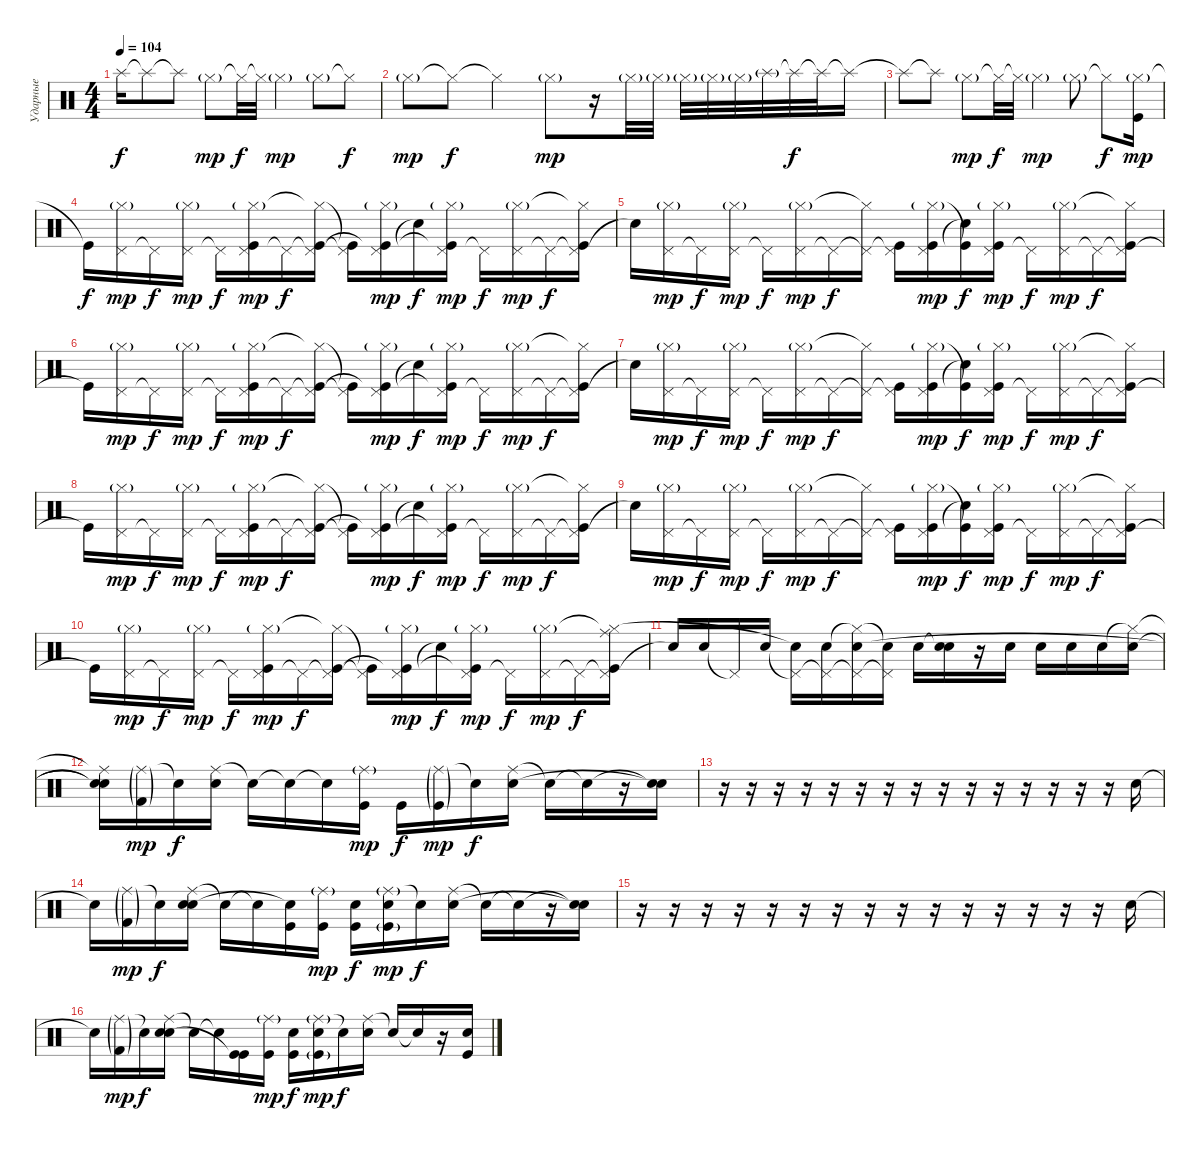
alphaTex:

\track ("Ударные" "Ударные") {instrument percussion}
\staff {score}
\articulation defaults
\ts (4 4)
\tempo 104
\clef neutral
\ks c "Splash (hit)"{t}.16{dy f} "Splash (hit)"{t}.8 "Splash (hit)"{t}.8 "Hi-Hat (closed)"{g}.8{dy mp} "Hi-Hat (closed)"{t}.32{dy f} "Hi-Hat (closed)"{t}.32 "Hi-Hat (closed)"{g}.4{dy mp} "Hi-Hat (closed)"{g}.8 "Hi-Hat (closed)"{t}.8{dy f}
|
"Hi-Hat (closed)"{g}.8{dy mp} "Hi-Hat (closed)"{t}.8{dy f} "Hi-Hat (closed)"{t}.4 "Hi-Hat (closed)"{g}.8{dy mp} r.16 "Hi-Hat (closed)"{g}.32 "Hi-Hat (closed)"{g}.32 "Hi-Hat (closed)"{g}.32 "Hi-Hat (closed)"{g}.32 "Hi-Hat (closed)"{g}.32 "Splash (hit)"{g}.32 "Splash (hit)"{t}.32{dy f} "Splash (hit)"{t}.32 "Splash (hit)"{t}.16 |
"Splash (hit)"{t}.8 "Splash (hit)"{t}.8 "Hi-Hat (closed)"{g}.8{dy mp} "Hi-Hat (closed)"{t}.32{dy f} "Hi-Hat (closed)"{t}.32 "Hi-Hat (closed)"{g}.4{dy mp} "Hi-Hat (closed)"{g}.8 "Hi-Hat (closed)"{t}.8{dy f} ("Hi-Hat (closed)"{g} "Kick (hit)").16{dy mp} |
"Kick (hit)"{t}.16{dy f} ("Pedal Hi-Hat (hit)" "Hi-Hat (closed)"{g}).16{dy mp} "Pedal Hi-Hat (hit)"{t}.16{dy f} ("Pedal Hi-Hat (hit)" "Hi-Hat (closed)"{g}).16{dy mp} "Pedal Hi-Hat (hit)"{t}.16{dy f} ("Pedal Hi-Hat (hit)" "Hi-Hat (closed)"{g} "Kick (hit)").16{dy mp} "Pedal Hi-Hat (hit)"{t}.16{dy f} ("Pedal Hi-Hat (hit)"{t} "Hi-Hat (closed)"{t} "Kick (hit)").16 ("Pedal Hi-Hat (hit)"{t} "Kick (hit)"{t}).16 ("Pedal Hi-Hat (hit)" "Hi-Hat (closed)"{g} "Kick (hit)"{t}).16{dy mp} "Snare (hit)"{t}.16{dy f} ("Pedal Hi-Hat (hit)" "Hi-Hat (closed)"{g} "Kick (hit)"{t}).16{dy mp} "Pedal Hi-Hat (hit)"{t}.16{dy f} ("Pedal Hi-Hat (hit)" "Hi-Hat (closed)"{g}).16{dy mp} "Pedal Hi-Hat (hit)"{t}.16{dy f} ("Pedal Hi-Hat (hit)"{t} "Hi-Hat (closed)"{t} "Kick (hit)").16 |
"Snare (hit)"{t}.16 ("Pedal Hi-Hat (hit)" "Hi-Hat (closed)"{g}).16{dy mp} "Pedal Hi-Hat (hit)"{t}.16{dy f} ("Pedal Hi-Hat (hit)" "Hi-Hat (closed)"{g}).16{dy mp} "Pedal Hi-Hat (hit)"{t}.16{dy f} ("Pedal Hi-Hat (hit)" "Hi-Hat (closed)"{g}).16{dy mp} "Pedal Hi-Hat (hit)"{t}.16{dy f} ("Pedal Hi-Hat (hit)"{t} "Hi-Hat (closed)"{t}).16 ("Pedal Hi-Hat (hit)"{t} "Kick (hit)").16 ("Pedal Hi-Hat (hit)" "Hi-Hat (closed)"{g} "Kick (hit)").16{dy mp} ("Snare (hit)"{t} "Kick (hit)"{t}).16{dy f} ("Pedal Hi-Hat (hit)" "Hi-Hat (closed)"{g} "Kick (hit)").16{dy mp} "Pedal Hi-Hat (hit)"{t}.16{dy f} ("Pedal Hi-Hat (hit)" "Hi-Hat (closed)"{g}).16{dy mp} "Pedal Hi-Hat (hit)"{t}.16{dy f} ("Pedal Hi-Hat (hit)"{t} "Hi-Hat (closed)"{t} "Kick (hit)").16 |
"Kick (hit)"{t}.16 ("Pedal Hi-Hat (hit)" "Hi-Hat (closed)"{g}).16{dy mp} "Pedal Hi-Hat (hit)"{t}.16{dy f} ("Pedal Hi-Hat (hit)" "Hi-Hat (closed)"{g}).16{dy mp} "Pedal Hi-Hat (hit)"{t}.16{dy f} ("Pedal Hi-Hat (hit)" "Hi-Hat (closed)"{g} "Kick (hit)").16{dy mp} "Pedal Hi-Hat (hit)"{t}.16{dy f} ("Pedal Hi-Hat (hit)"{t} "Hi-Hat (closed)"{t} "Kick (hit)").16 ("Pedal Hi-Hat (hit)"{t} "Kick (hit)"{t}).16 ("Pedal Hi-Hat (hit)" "Hi-Hat (closed)"{g} "Kick (hit)"{t}).16{dy mp} "Snare (hit)"{t}.16{dy f} ("Pedal Hi-Hat (hit)" "Hi-Hat (closed)"{g} "Kick (hit)"{t}).16{dy mp} "Pedal Hi-Hat (hit)"{t}.16{dy f} ("Pedal Hi-Hat (hit)" "Hi-Hat (closed)"{g}).16{dy mp} "Pedal Hi-Hat (hit)"{t}.16{dy f} ("Pedal Hi-Hat (hit)"{t} "Hi-Hat (closed)"{t} "Kick (hit)").16 |
"Snare (hit)"{t}.16 ("Pedal Hi-Hat (hit)" "Hi-Hat (closed)"{g}).16{dy mp} "Pedal Hi-Hat (hit)"{t}.16{dy f} ("Pedal Hi-Hat (hit)" "Hi-Hat (closed)"{g}).16{dy mp} "Pedal Hi-Hat (hit)"{t}.16{dy f} ("Pedal Hi-Hat (hit)" "Hi-Hat (closed)"{g}).16{dy mp} "Pedal Hi-Hat (hit)"{t}.16{dy f} ("Pedal Hi-Hat (hit)"{t} "Hi-Hat (closed)"{t}).16 ("Pedal Hi-Hat (hit)"{t} "Kick (hit)").16 ("Pedal Hi-Hat (hit)" "Hi-Hat (closed)"{g} "Kick (hit)").16{dy mp} ("Snare (hit)"{t} "Kick (hit)"{t}).16{dy f} ("Pedal Hi-Hat (hit)" "Hi-Hat (closed)"{g} "Kick (hit)").16{dy mp} "Pedal Hi-Hat (hit)"{t}.16{dy f} ("Pedal Hi-Hat (hit)" "Hi-Hat (closed)"{g}).16{dy mp} "Pedal Hi-Hat (hit)"{t}.16{dy f} ("Pedal Hi-Hat (hit)"{t} "Hi-Hat (closed)"{t} "Kick (hit)").16 |
"Kick (hit)"{t}.16 ("Pedal Hi-Hat (hit)" "Hi-Hat (closed)"{g}).16{dy mp} "Pedal Hi-Hat (hit)"{t}.16{dy f} ("Pedal Hi-Hat (hit)" "Hi-Hat (closed)"{g}).16{dy mp} "Pedal Hi-Hat (hit)"{t}.16{dy f} ("Pedal Hi-Hat (hit)" "Hi-Hat (closed)"{g} "Kick (hit)").16{dy mp} "Pedal Hi-Hat (hit)"{t}.16{dy f} ("Pedal Hi-Hat (hit)"{t} "Hi-Hat (closed)"{t} "Kick (hit)").16 ("Pedal Hi-Hat (hit)"{t} "Kick (hit)"{t}).16 ("Pedal Hi-Hat (hit)" "Hi-Hat (closed)"{g} "Kick (hit)"{t}).16{dy mp} "Snare (hit)"{t}.16{dy f} ("Pedal Hi-Hat (hit)" "Hi-Hat (closed)"{g} "Kick (hit)"{t}).16{dy mp} "Pedal Hi-Hat (hit)"{t}.16{dy f} ("Pedal Hi-Hat (hit)" "Hi-Hat (closed)"{g}).16{dy mp} "Pedal Hi-Hat (hit)"{t}.16{dy f} ("Pedal Hi-Hat (hit)"{t} "Hi-Hat (closed)"{t} "Kick (hit)").16 |
"Snare (hit)"{t}.16 ("Pedal Hi-Hat (hit)" "Hi-Hat (closed)"{g}).16{dy mp} "Pedal Hi-Hat (hit)"{t}.16{dy f} ("Pedal Hi-Hat (hit)" "Hi-Hat (closed)"{g}).16{dy mp} "Pedal Hi-Hat (hit)"{t}.16{dy f} ("Pedal Hi-Hat (hit)" "Hi-Hat (closed)"{g}).16{dy mp} "Pedal Hi-Hat (hit)"{t}.16{dy f} ("Pedal Hi-Hat (hit)"{t} "Hi-Hat (closed)"{t}).16 ("Pedal Hi-Hat (hit)"{t} "Kick (hit)").16 ("Pedal Hi-Hat (hit)" "Hi-Hat (closed)"{g} "Kick (hit)").16{dy mp} ("Snare (hit)"{t} "Kick (hit)"{t}).16{dy f} ("Pedal Hi-Hat (hit)" "Hi-Hat (closed)"{g} "Kick (hit)").16{dy mp} "Pedal Hi-Hat (hit)"{t}.16{dy f} ("Pedal Hi-Hat (hit)" "Hi-Hat (closed)"{g}).16{dy mp} "Pedal Hi-Hat (hit)"{t}.16{dy f} ("Pedal Hi-Hat (hit)"{t} "Hi-Hat (closed)"{t} "Kick (hit)").16 |
"Kick (hit)"{t}.16 ("Pedal Hi-Hat (hit)" "Hi-Hat (closed)"{g}).16{dy mp} "Pedal Hi-Hat (hit)"{t}.16{dy f} ("Pedal Hi-Hat (hit)" "Hi-Hat (closed)"{g}).16{dy mp} "Pedal Hi-Hat (hit)"{t}.16{dy f} ("Pedal Hi-Hat (hit)" "Hi-Hat (closed)"{g} "Kick (hit)").16{dy mp} "Pedal Hi-Hat (hit)"{t}.16{dy f} ("Pedal Hi-Hat (hit)"{t} "Hi-Hat (closed)"{t} "Kick (hit)").16 ("Pedal Hi-Hat (hit)"{t} "Kick (hit)"{t}).16 ("Pedal Hi-Hat (hit)" "Hi-Hat (closed)"{g} "Kick (hit)"{t}).16{dy mp} "Snare (hit)"{t}.16{dy f} ("Pedal Hi-Hat (hit)" "Hi-Hat (closed)"{g} "Kick (hit)"{t}).16{dy mp} "Pedal Hi-Hat (hit)"{t}.16{dy f} ("Pedal Hi-Hat (hit)" "Hi-Hat (closed)"{g}).16{dy mp} "Pedal Hi-Hat (hit)"{t}.16{dy f} ("Pedal Hi-Hat (hit)"{t} "Hi-Hat (closed)"{t} "Kick (hit)" "Ride (middle)").16 |
"Snare (hit)"{t}.16 "Snare (hit) 2".16 "Pedal Hi-Hat (hit)"{t}.16 "Snare (hit) 2".16 ("Pedal Hi-Hat (hit)"{t} "Snare (hit) 2"{t}).16 ("Pedal Hi-Hat (hit)"{t} "Electric Snare (hit)").16 ("Pedal Hi-Hat (hit)"{t} "Hi-Hat (closed)"{t} "Snare (hit) 2").16 ("Pedal Hi-Hat (hit)"{t} "Snare (hit)"{t}).16 "Electric Snare (hit)".16 ("Snare (hit)"{t} "Snare (hit) 2").16 r.16 "Electric Snare (hit)".16 "Electric Snare (hit)".16 "Snare (hit) 2".16 "Snare (hit) 2".16 ("Hi-Hat (closed)"{t} "Snare (hit) 2").16 |
("Ride (middle)"{t} "Snare (hit) 2"{t} "Snare (hit)"{t}).16 ("Ride (middle)"{g} "Kick (hit) 2"{g}).16{dy mp} "Electric Snare (hit)"{t}.16{dy f} ("Ride (middle)" "Snare (hit) 2").16 "Electric Snare (hit)"{t}.16 "Electric Snare (hit)"{t}.16 "Electric Snare (hit)"{t}.16 ("Ride (middle)"{g} "Kick (hit)").16{dy mp} "Kick (hit)".16{dy f} ("Ride (middle)"{g} "Kick (hit)"{g}).16{dy mp} "Electric Snare (hit)"{t}.16{dy f} ("Ride (middle)" "Snare (hit) 2").16 "Electric Snare (hit)"{t}.16 "Electric Snare (hit)"{t}.16 r.16 ("Snare (hit)"{t} "Snare (hit)"{t}).16 |
r.16 r.16 r.16 r.16 r.16 r.16 r.16 r.16 r.16 r.16 r.16 r.16 r.16 r.16 r.16 "Snare (hit) 2".16 |
"Snare (hit) 2"{t}.16 ("Ride (middle)"{g} "Kick (hit) 2"{g}).16{dy mp} "Electric Snare (hit)"{t}.16{dy f} ("Ride (middle)" "Snare (hit) 2" "Snare (hit) 2").16 "Electric Snare (hit)"{t}.16 "Electric Snare (hit)"{t}.16 ("Kick (hit)" "Electric Snare (hit)"{t}).16 ("Ride (middle)"{g} "Kick (hit)").16{dy mp} ("Snare (hit) 2" "Kick (hit)").16{dy f} ("Ride (middle)"{g} "Snare (hit) 2" "Kick (hit)"{g}).16{dy mp} "Electric Snare (hit)"{t}.16{dy f} ("Ride (middle)" "Snare (hit) 2").16 "Electric Snare (hit)"{t}.16 "Electric Snare (hit)"{t}.16 r.16 ("Snare (hit)"{t} "Snare (hit)"{t}).16 |
r.16 r.16 r.16 r.16 r.16 r.16 r.16 r.16 r.16 r.16 r.16 r.16 r.16 r.16 r.16 "Snare (hit) 2".16 |
"Snare (hit) 2"{t}.16 ("Ride (middle)"{g} "Kick (hit) 2"{g}).16{dy mp} "Electric Snare (hit)"{t}.16{dy f} ("Ride (middle)" "Snare (hit) 2" "Snare (hit) 2").16 "Electric Snare (hit)"{t}.16 "Electric Snare (hit)"{t}.16 ("Kick (hit)" "Kick (hit)"{t}).16 ("Ride (middle)"{g} "Kick (hit)").16{dy mp} ("Snare (hit) 2" "Kick (hit)").16{dy f} ("Ride (middle)"{g} "Snare (hit) 2" "Kick (hit)"{g}).16{dy mp} "Electric Snare (hit)"{t}.16{dy f} ("Ride (middle)" "Snare (hit) 2").16 "Electric Snare (hit)"{t}.16 "Electric Snare (hit)"{t}.16 r.16 ("Kick (hit)" "Snare (hit) 2").16
